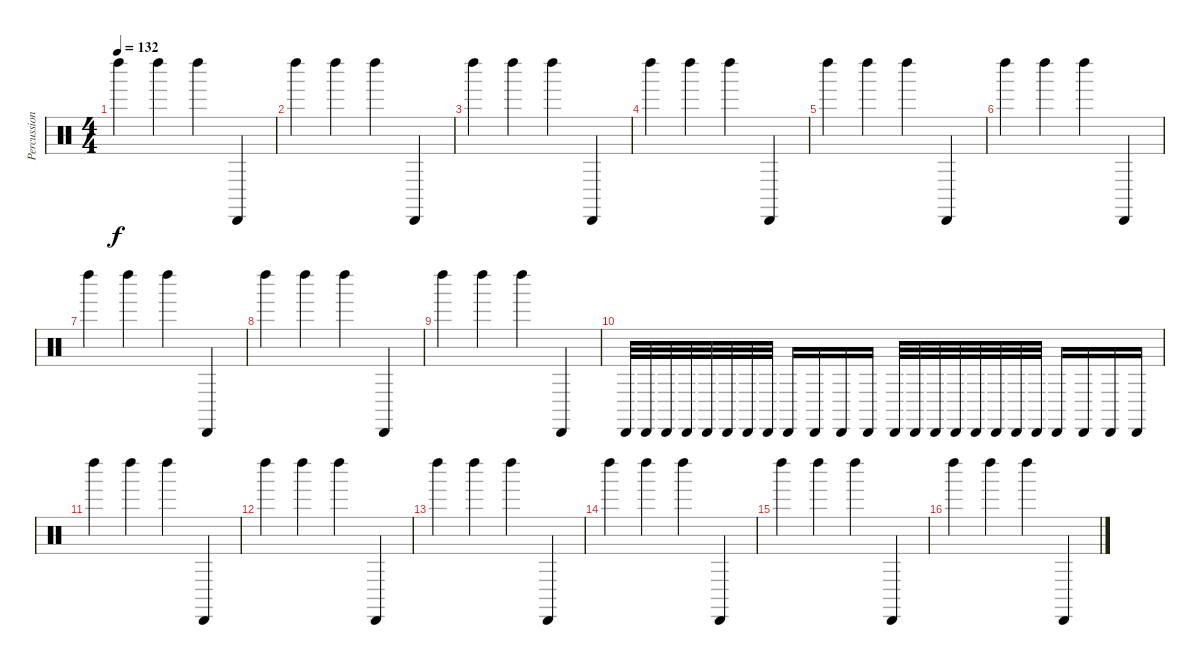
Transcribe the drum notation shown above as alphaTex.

\track ("Percussion" "Percussion") {instrument percussion}
\staff {score}
\articulation defaults
\ts (4 4)
\tempo 132
\clef neutral
\ks c "Left Maraca (hit)".4{dy f} "Left Maraca (hit)".4 "Left Maraca (hit)".4 "Cabasa (hit)".4
|
"Left Maraca (hit)".4 "Left Maraca (hit)".4 "Left Maraca (hit)".4 "Cabasa (hit)".4 |
"Left Maraca (hit)".4 "Left Maraca (hit)".4 "Left Maraca (hit)".4 "Cabasa (hit)".4 |
"Left Maraca (hit)".4 "Left Maraca (hit)".4 "Left Maraca (hit)".4 "Cabasa (hit)".4 |
"Left Maraca (hit)".4 "Left Maraca (hit)".4 "Left Maraca (hit)".4 "Cabasa (hit)".4 |
"Left Maraca (hit)".4 "Left Maraca (hit)".4 "Left Maraca (hit)".4 "Cabasa (hit)".4 |
"Left Maraca (hit)".4 "Left Maraca (hit)".4 "Left Maraca (hit)".4 "Cabasa (hit)".4 |
"Left Maraca (hit)".4 "Left Maraca (hit)".4 "Left Maraca (hit)".4 "Cabasa (hit)".4 |
"Left Maraca (hit)".4 "Left Maraca (hit)".4 "Left Maraca (hit)".4 "Cabasa (hit)".4 |
"Cabasa (hit)".32 "Cabasa (hit)".32 "Cabasa (hit)".32 "Cabasa (hit)".32 "Cabasa (hit)".32 "Cabasa (hit)".32 "Cabasa (hit)".32 "Cabasa (hit)".32 "Cabasa (hit)".16 "Cabasa (hit)".16 "Cabasa (hit)".16 "Cabasa (hit)".16 "Cabasa (hit)".32 "Cabasa (hit)".32 "Cabasa (hit)".32 "Cabasa (hit)".32 "Cabasa (hit)".32 "Cabasa (hit)".32 "Cabasa (hit)".32 "Cabasa (hit)".32 "Cabasa (hit)".16 "Cabasa (hit)".16 "Cabasa (hit)".16 "Cabasa (hit)".16 |
"Left Maraca (hit)".4 "Left Maraca (hit)".4 "Left Maraca (hit)".4 "Cabasa (hit)".4 |
"Left Maraca (hit)".4 "Left Maraca (hit)".4 "Left Maraca (hit)".4 "Cabasa (hit)".4 |
"Left Maraca (hit)".4 "Left Maraca (hit)".4 "Left Maraca (hit)".4 "Cabasa (hit)".4 |
"Left Maraca (hit)".4 "Left Maraca (hit)".4 "Left Maraca (hit)".4 "Cabasa (hit)".4 |
"Left Maraca (hit)".4 "Left Maraca (hit)".4 "Left Maraca (hit)".4 "Cabasa (hit)".4 |
"Left Maraca (hit)".4 "Left Maraca (hit)".4 "Left Maraca (hit)".4 "Cabasa (hit)".4
